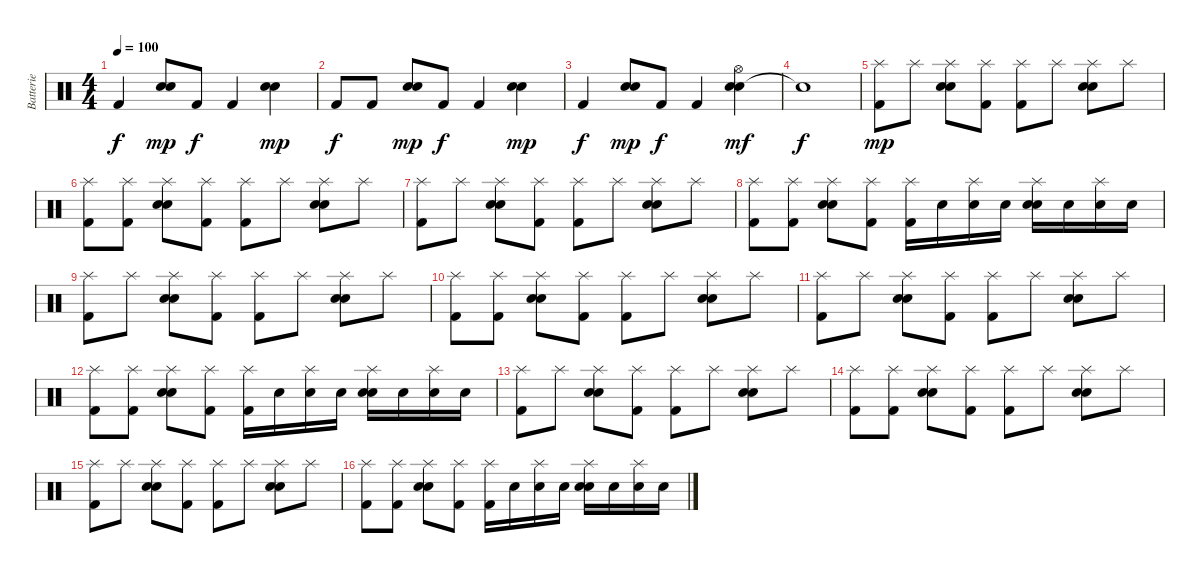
\track ("Batterie" "Batterie") {instrument percussion}
\staff {score}
\articulation defaults
\ts (4 4)
\tempo 100
\clef neutral
\ks c "Kick (hit) 2".4{dy f}
("Hand Clap (hit)" "Snare (hit) 2").8{dy mp} "Kick (hit) 2".8{dy f} "Kick (hit) 2".4 ("Hand Clap (hit)" "Snare (hit) 2").4{dy mp} |
"Kick (hit) 2".8{dy f} "Kick (hit) 2".8 ("Hand Clap (hit)" "Snare (hit) 2").8{dy mp} "Kick (hit) 2".8{dy f} "Kick (hit) 2".4 ("Hand Clap (hit)" "Snare (hit) 2").4{dy mp} |
"Kick (hit) 2".4{dy f} ("Hand Clap (hit)" "Snare (hit) 2").8{dy mp} "Kick (hit) 2".8{dy f} "Kick (hit) 2".4 ("Hand Clap (hit)" "Snare (hit) 2" "Hi-Hat (open)").4{dy mf} |
"Snare (hit)"{t}.1{dy f} |
("Kick (hit) 2" "Splash (hit)").8{dy mp} "Splash (hit)".8 ("Hand Clap (hit)" "Electric Snare (hit)" "Splash (hit)").8 ("Kick (hit) 2" "Splash (hit)").8 ("Kick (hit) 2" "Splash (hit)").8 "Splash (hit)".8 ("Hand Clap (hit)" "Electric Snare (hit)" "Splash (hit)").8 "Splash (hit)".8 |
("Kick (hit) 2" "Splash (hit)").8 ("Kick (hit) 2" "Splash (hit)").8 ("Hand Clap (hit)" "Electric Snare (hit)" "Splash (hit)").8 ("Kick (hit) 2" "Splash (hit)").8 ("Kick (hit) 2" "Splash (hit)").8 "Splash (hit)".8 ("Hand Clap (hit)" "Electric Snare (hit)" "Splash (hit)").8 "Splash (hit)".8 |
("Kick (hit) 2" "Splash (hit)").8 "Splash (hit)".8 ("Hand Clap (hit)" "Electric Snare (hit)" "Splash (hit)").8 ("Kick (hit) 2" "Splash (hit)").8 ("Kick (hit) 2" "Splash (hit)").8 "Splash (hit)".8 ("Hand Clap (hit)" "Electric Snare (hit)" "Splash (hit)").8 "Splash (hit)".8 |
("Kick (hit) 2" "Splash (hit)").8 ("Kick (hit) 2" "Splash (hit)").8 ("Hand Clap (hit)" "Electric Snare (hit)" "Splash (hit)").8 ("Kick (hit) 2" "Splash (hit)").8 ("Kick (hit) 2" "Splash (hit)").16 "Electric Snare (hit)".16 ("Electric Snare (hit)" "Splash (hit)").16 "Electric Snare (hit)".16 ("Hand Clap (hit)" "Electric Snare (hit)" "Splash (hit)").16 "Electric Snare (hit)".16 ("Electric Snare (hit)" "Splash (hit)").16 "Electric Snare (hit)".16 |
("Kick (hit) 2" "Splash (hit)").8 "Splash (hit)".8 ("Hand Clap (hit)" "Electric Snare (hit)" "Splash (hit)").8 ("Kick (hit) 2" "Splash (hit)").8 ("Kick (hit) 2" "Splash (hit)").8 "Splash (hit)".8 ("Hand Clap (hit)" "Electric Snare (hit)" "Splash (hit)").8 "Splash (hit)".8 |
("Kick (hit) 2" "Splash (hit)").8 ("Kick (hit) 2" "Splash (hit)").8 ("Hand Clap (hit)" "Electric Snare (hit)" "Splash (hit)").8 ("Kick (hit) 2" "Splash (hit)").8 ("Kick (hit) 2" "Splash (hit)").8 "Splash (hit)".8 ("Hand Clap (hit)" "Electric Snare (hit)" "Splash (hit)").8 "Splash (hit)".8 |
("Kick (hit) 2" "Splash (hit)").8 "Splash (hit)".8 ("Hand Clap (hit)" "Electric Snare (hit)" "Splash (hit)").8 ("Kick (hit) 2" "Splash (hit)").8 ("Kick (hit) 2" "Splash (hit)").8 "Splash (hit)".8 ("Hand Clap (hit)" "Electric Snare (hit)" "Splash (hit)").8 "Splash (hit)".8 |
("Kick (hit) 2" "Splash (hit)").8 ("Kick (hit) 2" "Splash (hit)").8 ("Hand Clap (hit)" "Electric Snare (hit)" "Splash (hit)").8 ("Kick (hit) 2" "Splash (hit)").8 ("Kick (hit) 2" "Splash (hit)").16 "Electric Snare (hit)".16 ("Electric Snare (hit)" "Splash (hit)").16 "Electric Snare (hit)".16 ("Hand Clap (hit)" "Electric Snare (hit)" "Splash (hit)").16 "Electric Snare (hit)".16 ("Electric Snare (hit)" "Splash (hit)").16 "Electric Snare (hit)".16 |
("Kick (hit) 2" "Splash (hit)").8 "Splash (hit)".8 ("Hand Clap (hit)" "Electric Snare (hit)" "Splash (hit)").8 ("Kick (hit) 2" "Splash (hit)").8 ("Kick (hit) 2" "Splash (hit)").8 "Splash (hit)".8 ("Hand Clap (hit)" "Electric Snare (hit)" "Splash (hit)").8 "Splash (hit)".8 |
("Kick (hit) 2" "Splash (hit)").8 ("Kick (hit) 2" "Splash (hit)").8 ("Hand Clap (hit)" "Electric Snare (hit)" "Splash (hit)").8 ("Kick (hit) 2" "Splash (hit)").8 ("Kick (hit) 2" "Splash (hit)").8 "Splash (hit)".8 ("Hand Clap (hit)" "Electric Snare (hit)" "Splash (hit)").8 "Splash (hit)".8 |
("Kick (hit) 2" "Splash (hit)").8 "Splash (hit)".8 ("Hand Clap (hit)" "Electric Snare (hit)" "Splash (hit)").8 ("Kick (hit) 2" "Splash (hit)").8 ("Kick (hit) 2" "Splash (hit)").8 "Splash (hit)".8 ("Hand Clap (hit)" "Electric Snare (hit)" "Splash (hit)").8 "Splash (hit)".8 |
("Kick (hit) 2" "Splash (hit)").8 ("Kick (hit) 2" "Splash (hit)").8 ("Hand Clap (hit)" "Electric Snare (hit)" "Splash (hit)").8 ("Kick (hit) 2" "Splash (hit)").8 ("Kick (hit) 2" "Splash (hit)").16 "Electric Snare (hit)".16 ("Electric Snare (hit)" "Splash (hit)").16 "Electric Snare (hit)".16 ("Hand Clap (hit)" "Electric Snare (hit)" "Splash (hit)").16 "Electric Snare (hit)".16 ("Electric Snare (hit)" "Splash (hit)").16 "Electric Snare (hit)".16
